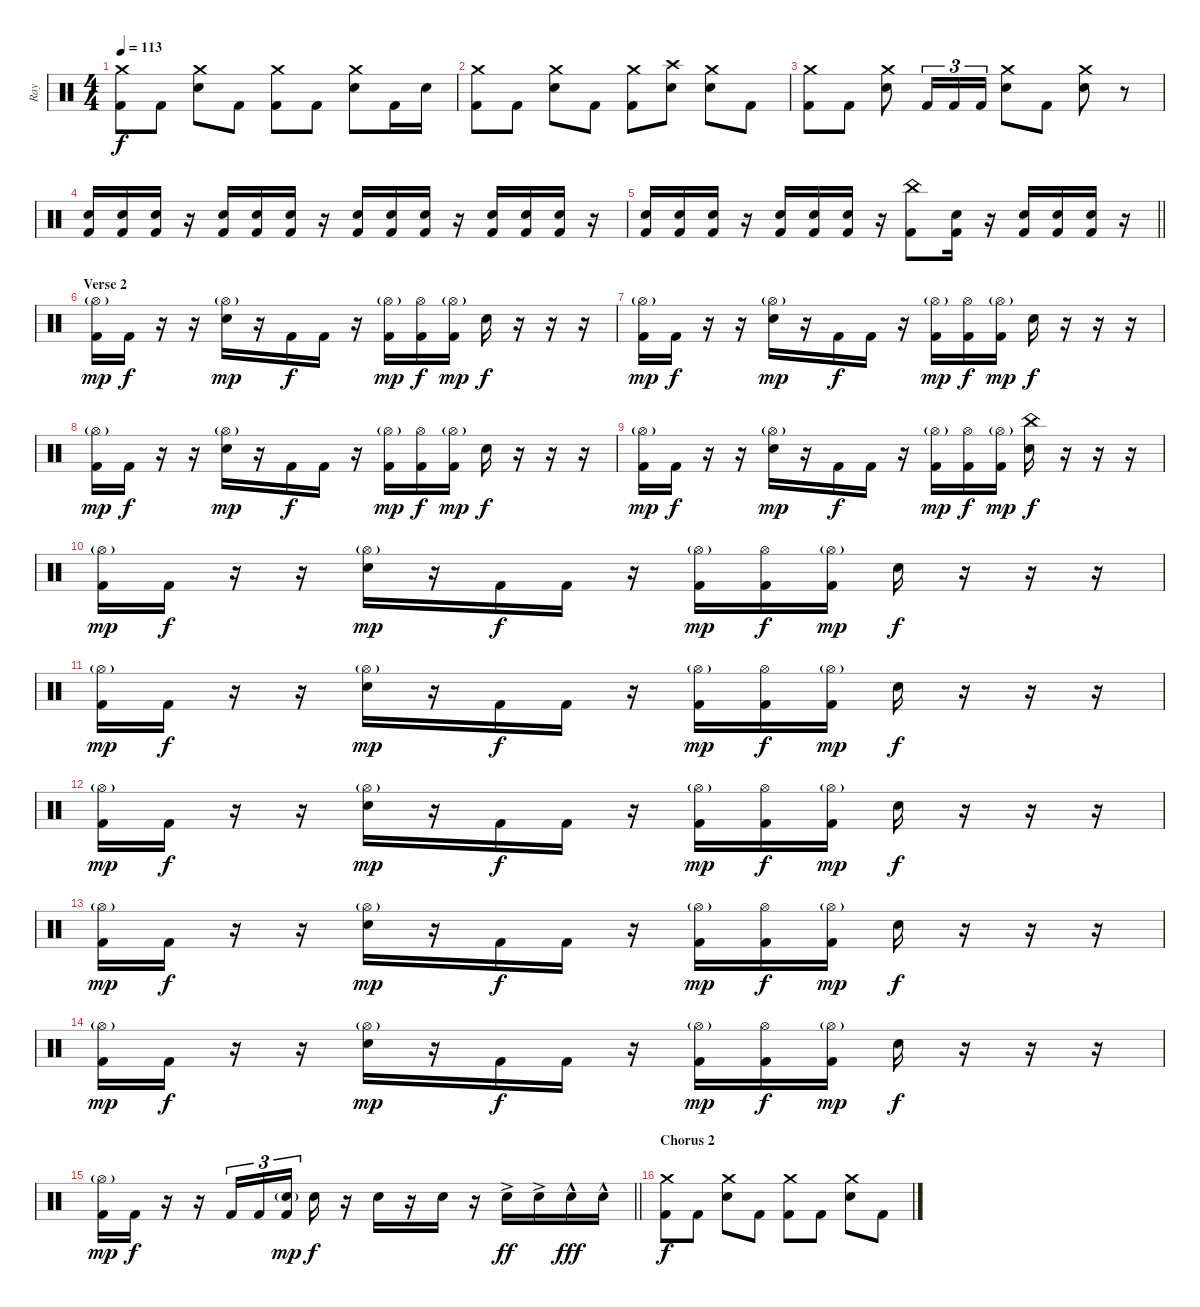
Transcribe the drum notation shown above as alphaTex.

\track ("Ray" "Ray") {instrument percussion}
\staff {score}
\articulation defaults
\ts (4 4)
\tempo 113
\clef neutral
\ks c
("Crash medium (hit)" "Kick (hit) 2").8{dy f} "Kick (hit) 2".8 ("Crash medium (hit)" "Electric Snare (hit)").8 "Kick (hit) 2".8 ("Crash medium (hit)" "Kick (hit) 2").8 "Kick (hit) 2".8 ("Crash medium (hit)" "Electric Snare (hit)").8 "Kick (hit) 2".16 "Electric Snare (hit)".16 |
("Crash medium (hit)" "Kick (hit) 2").8 "Kick (hit) 2".8 ("Crash medium (hit)" "Electric Snare (hit)").8 "Kick (hit) 2".8 ("Crash medium (hit)" "Kick (hit) 2").8 ("Crash high (hit)" "Electric Snare (hit)").8 ("Crash medium (hit)" "Electric Snare (hit)").8 "Kick (hit) 2".8 |
("Crash medium (hit)" "Kick (hit) 2").8 "Kick (hit) 2".8 ("Crash medium (hit)" "Electric Snare (hit)").8 "Kick (hit) 2".16{tu (3 2)} "Kick (hit) 2".16{tu (3 2)} "Kick (hit) 2".16{tu (3 2)} ("Crash medium (hit)" "Electric Snare (hit)").8 "Kick (hit) 2".8 ("Crash medium (hit)" "Electric Snare (hit)").8 r.8 |
("Kick (hit) 2" "Electric Snare (hit)").16 ("Kick (hit) 2" "Electric Snare (hit)").16 ("Kick (hit) 2" "Electric Snare (hit)").16 r.16 ("Kick (hit) 2" "Electric Snare (hit)").16 ("Kick (hit) 2" "Electric Snare (hit)").16 ("Kick (hit) 2" "Electric Snare (hit)").16 r.16 ("Kick (hit) 2" "Electric Snare (hit)").16 ("Kick (hit) 2" "Electric Snare (hit)").16 ("Kick (hit) 2" "Electric Snare (hit)").16 r.16 ("Kick (hit) 2" "Electric Snare (hit)").16 ("Kick (hit) 2" "Electric Snare (hit)").16 ("Kick (hit) 2" "Electric Snare (hit)").16 r.16 |
\barLineRight lightlight
("Kick (hit) 2" "Electric Snare (hit)").16 ("Kick (hit) 2" "Electric Snare (hit)").16 ("Kick (hit) 2" "Electric Snare (hit)").16 r.16 ("Kick (hit) 2" "Electric Snare (hit)").16 ("Kick (hit) 2" "Electric Snare (hit)").16 ("Kick (hit) 2" "Electric Snare (hit)").16 r.16 ("China (hit)" "Kick (hit) 2").8 ("Electric Snare (hit)" "Kick (hit) 2").16 r.16 ("Kick (hit) 2" "Electric Snare (hit)").16 ("Kick (hit) 2" "Electric Snare (hit)").16 ("Kick (hit) 2" "Electric Snare (hit)").16 r.16 |
\section ("" "Verse 2")
("Hi-Hat (open)"{g} "Kick (hit) 2").16{dy mp} "Kick (hit) 2".16{dy f} r.16 r.16 ("Hi-Hat (open)"{g} "Electric Snare (hit)").16{dy mp} r.16 "Kick (hit) 2".16{dy f} "Kick (hit) 2".16 r.16 ("Hi-Hat (open)"{g} "Kick (hit) 2").16{dy mp} ("Hi-Hat (open)" "Kick (hit) 2").16{dy f} ("Hi-Hat (open)"{g} "Kick (hit) 2").16{dy mp} "Electric Snare (hit)".16{dy f} r.16 r.16 r.16 |
("Hi-Hat (open)"{g} "Kick (hit) 2").16{dy mp} "Kick (hit) 2".16{dy f} r.16 r.16 ("Hi-Hat (open)"{g} "Electric Snare (hit)").16{dy mp} r.16 "Kick (hit) 2".16{dy f} "Kick (hit) 2".16 r.16 ("Hi-Hat (open)"{g} "Kick (hit) 2").16{dy mp} ("Hi-Hat (open)" "Kick (hit) 2").16{dy f} ("Hi-Hat (open)"{g} "Kick (hit) 2").16{dy mp} "Electric Snare (hit)".16{dy f} r.16 r.16 r.16 |
("Hi-Hat (open)"{g} "Kick (hit) 2").16{dy mp} "Kick (hit) 2".16{dy f} r.16 r.16 ("Hi-Hat (open)"{g} "Electric Snare (hit)").16{dy mp} r.16 "Kick (hit) 2".16{dy f} "Kick (hit) 2".16 r.16 ("Hi-Hat (open)"{g} "Kick (hit) 2").16{dy mp} ("Hi-Hat (open)" "Kick (hit) 2").16{dy f} ("Hi-Hat (open)"{g} "Kick (hit) 2").16{dy mp} "Electric Snare (hit)".16{dy f} r.16 r.16 r.16 |
("Hi-Hat (open)"{g} "Kick (hit) 2").16{dy mp} "Kick (hit) 2".16{dy f} r.16 r.16 ("Hi-Hat (open)"{g} "Electric Snare (hit)").16{dy mp} r.16 "Kick (hit) 2".16{dy f} "Kick (hit) 2".16 r.16 ("Hi-Hat (open)"{g} "Kick (hit) 2").16{dy mp} ("Hi-Hat (open)" "Kick (hit) 2").16{dy f} ("Hi-Hat (open)"{g} "Kick (hit) 2").16{dy mp} ("China (hit)" "Electric Snare (hit)").16{dy f} r.16 r.16 r.16 |
("Hi-Hat (open)"{g} "Kick (hit) 2").16{dy mp} "Kick (hit) 2".16{dy f} r.16 r.16 ("Hi-Hat (open)"{g} "Electric Snare (hit)").16{dy mp} r.16 "Kick (hit) 2".16{dy f} "Kick (hit) 2".16 r.16 ("Hi-Hat (open)"{g} "Kick (hit) 2").16{dy mp} ("Hi-Hat (open)" "Kick (hit) 2").16{dy f} ("Hi-Hat (open)"{g} "Kick (hit) 2").16{dy mp} "Electric Snare (hit)".16{dy f} r.16 r.16 r.16 |
("Hi-Hat (open)"{g} "Kick (hit) 2").16{dy mp} "Kick (hit) 2".16{dy f} r.16 r.16 ("Hi-Hat (open)"{g} "Electric Snare (hit)").16{dy mp} r.16 "Kick (hit) 2".16{dy f} "Kick (hit) 2".16 r.16 ("Hi-Hat (open)"{g} "Kick (hit) 2").16{dy mp} ("Hi-Hat (open)" "Kick (hit) 2").16{dy f} ("Hi-Hat (open)"{g} "Kick (hit) 2").16{dy mp} "Electric Snare (hit)".16{dy f} r.16 r.16 r.16 |
("Hi-Hat (open)"{g} "Kick (hit) 2").16{dy mp} "Kick (hit) 2".16{dy f} r.16 r.16 ("Hi-Hat (open)"{g} "Electric Snare (hit)").16{dy mp} r.16 "Kick (hit) 2".16{dy f} "Kick (hit) 2".16 r.16 ("Hi-Hat (open)"{g} "Kick (hit) 2").16{dy mp} ("Hi-Hat (open)" "Kick (hit) 2").16{dy f} ("Hi-Hat (open)"{g} "Kick (hit) 2").16{dy mp} "Electric Snare (hit)".16{dy f} r.16 r.16 r.16 |
("Hi-Hat (open)"{g} "Kick (hit) 2").16{dy mp} "Kick (hit) 2".16{dy f} r.16 r.16 ("Hi-Hat (open)"{g} "Electric Snare (hit)").16{dy mp} r.16 "Kick (hit) 2".16{dy f} "Kick (hit) 2".16 r.16 ("Hi-Hat (open)"{g} "Kick (hit) 2").16{dy mp} ("Hi-Hat (open)" "Kick (hit) 2").16{dy f} ("Hi-Hat (open)"{g} "Kick (hit) 2").16{dy mp} "Electric Snare (hit)".16{dy f} r.16 r.16 r.16 |
("Hi-Hat (open)"{g} "Kick (hit) 2").16{dy mp} "Kick (hit) 2".16{dy f} r.16 r.16 ("Hi-Hat (open)"{g} "Electric Snare (hit)").16{dy mp} r.16 "Kick (hit) 2".16{dy f} "Kick (hit) 2".16 r.16 ("Hi-Hat (open)"{g} "Kick (hit) 2").16{dy mp} ("Hi-Hat (open)" "Kick (hit) 2").16{dy f} ("Hi-Hat (open)"{g} "Kick (hit) 2").16{dy mp} "Electric Snare (hit)".16{dy f} r.16 r.16 r.16 |
\barLineRight lightlight
("Hi-Hat (open)"{g} "Kick (hit) 2").16{dy mp} "Kick (hit) 2".16{dy f} r.16 r.16 "Kick (hit) 2".16{tu (3 2)} "Kick (hit) 2".16{tu (3 2)} ("Electric Snare (hit)"{g} "Kick (hit) 2").16{tu (3 2) dy mp beam splitsecondary} "Electric Snare (hit)".16{dy f} r.16 "Electric Snare (hit)".16 r.16 "Electric Snare (hit)".16 r.16 "Electric Snare (hit)"{ac}.16{dy ff} "Electric Snare (hit)"{ac}.16 "Electric Snare (hit)"{hac}.16{dy fff} "Electric Snare (hit)"{hac}.16 |
\section ("" "Chorus 2")
("Crash medium (hit)" "Kick (hit) 2").8{dy f} "Kick (hit) 2".8 ("Crash medium (hit)" "Electric Snare (hit)").8 "Kick (hit) 2".8 ("Crash medium (hit)" "Kick (hit) 2").8 "Kick (hit) 2".8 ("Crash medium (hit)" "Electric Snare (hit)").8 "Kick (hit) 2".8
